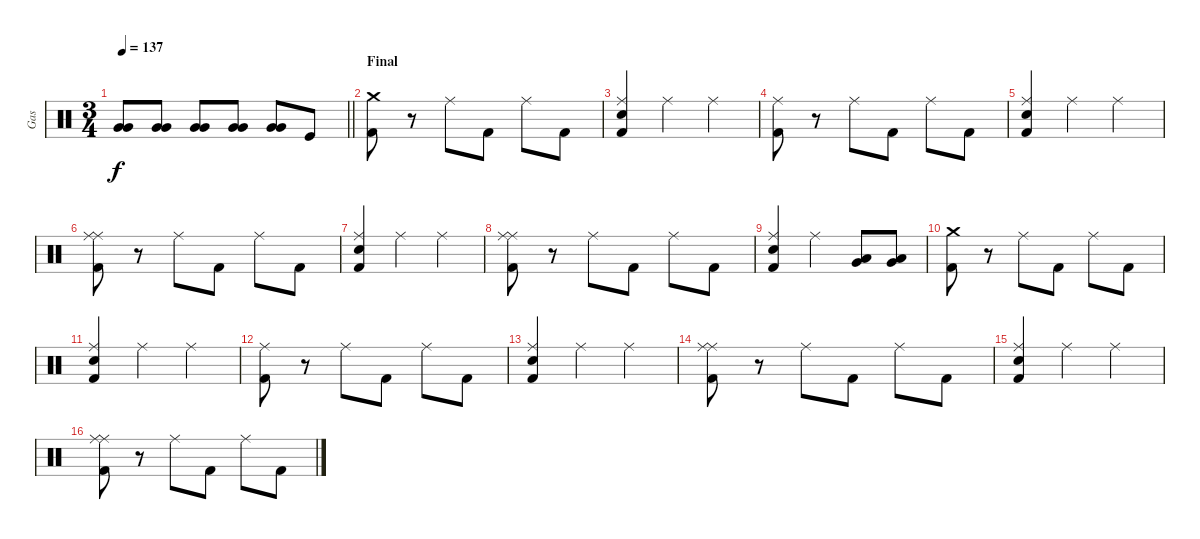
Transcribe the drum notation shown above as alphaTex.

\track ("Gas" "Gas") {instrument percussion}
\staff {score}
\articulation defaults
\ts (3 4)
\tempo 137
\clef neutral
\barLineRight lightlight
\ks c
("Very Low Tom (hit)" "Very Low Tom (hit)").8{dy f} ("Very Low Tom (hit)" "Very Low Tom (hit)").8 ("Very Low Tom (hit)" "Very Low Tom (hit)").8 ("Very Low Tom (hit)" "Very Low Tom (hit)").8 ("Very Low Tom (hit)" "Very Low Tom (hit)").8 "Kick (hit)".8 |
\section ("" "Final")
("Crash medium (hit)" "Kick (hit) 2").8 r.8 "Ride (middle)".8 "Kick (hit) 2".8 "Ride (middle)".8 "Kick (hit) 2".8 |
("Ride (middle)" "Snare (hit) 2" "Kick (hit) 2").4 "Ride (middle)".4 "Ride (middle)".4 |
("Ride (middle)" "Kick (hit) 2").8 r.8 "Ride (middle)".8 "Kick (hit) 2".8 "Ride (middle)".8 "Kick (hit) 2".8 |
("Ride (middle)" "Snare (hit) 2" "Kick (hit) 2").4 "Ride (middle)".4 "Ride (middle)".4 |
("Ride (middle)" "Ride (middle)" "Kick (hit) 2").8 r.8 "Ride (middle)".8 "Kick (hit) 2".8 "Ride (middle)".8 "Kick (hit) 2".8 |
("Ride (middle)" "Snare (hit) 2" "Kick (hit) 2").4 "Ride (middle)".4 "Ride (middle)".4 |
("Ride (middle)" "Ride (middle)" "Kick (hit) 2").8 r.8 "Ride (middle)".8 "Kick (hit) 2".8 "Ride (middle)".8 "Kick (hit) 2".8 |
("Ride (middle)" "Snare (hit) 2" "Kick (hit) 2").4 "Ride (middle)".4 ("Low Tom (hit)" "Very Low Tom (hit)").8{bd 60} ("Low Tom (hit)" "Very Low Tom (hit)").8{bd 60} |
("Crash medium (hit)" "Kick (hit) 2").8 r.8 "Ride (middle)".8 "Kick (hit) 2".8 "Ride (middle)".8 "Kick (hit) 2".8 |
("Ride (middle)" "Snare (hit) 2" "Kick (hit) 2").4 "Ride (middle)".4 "Ride (middle)".4 |
("Ride (middle)" "Kick (hit) 2").8 r.8 "Ride (middle)".8 "Kick (hit) 2".8 "Ride (middle)".8 "Kick (hit) 2".8 |
("Ride (middle)" "Snare (hit) 2" "Kick (hit) 2").4 "Ride (middle)".4 "Ride (middle)".4 |
("Ride (middle)" "Ride (middle)" "Kick (hit) 2").8 r.8 "Ride (middle)".8 "Kick (hit) 2".8 "Ride (middle)".8 "Kick (hit) 2".8 |
("Ride (middle)" "Snare (hit) 2" "Kick (hit) 2").4 "Ride (middle)".4 "Ride (middle)".4 |
("Ride (middle)" "Ride (middle)" "Kick (hit) 2").8 r.8 "Ride (middle)".8 "Kick (hit) 2".8 "Ride (middle)".8 "Kick (hit) 2".8
